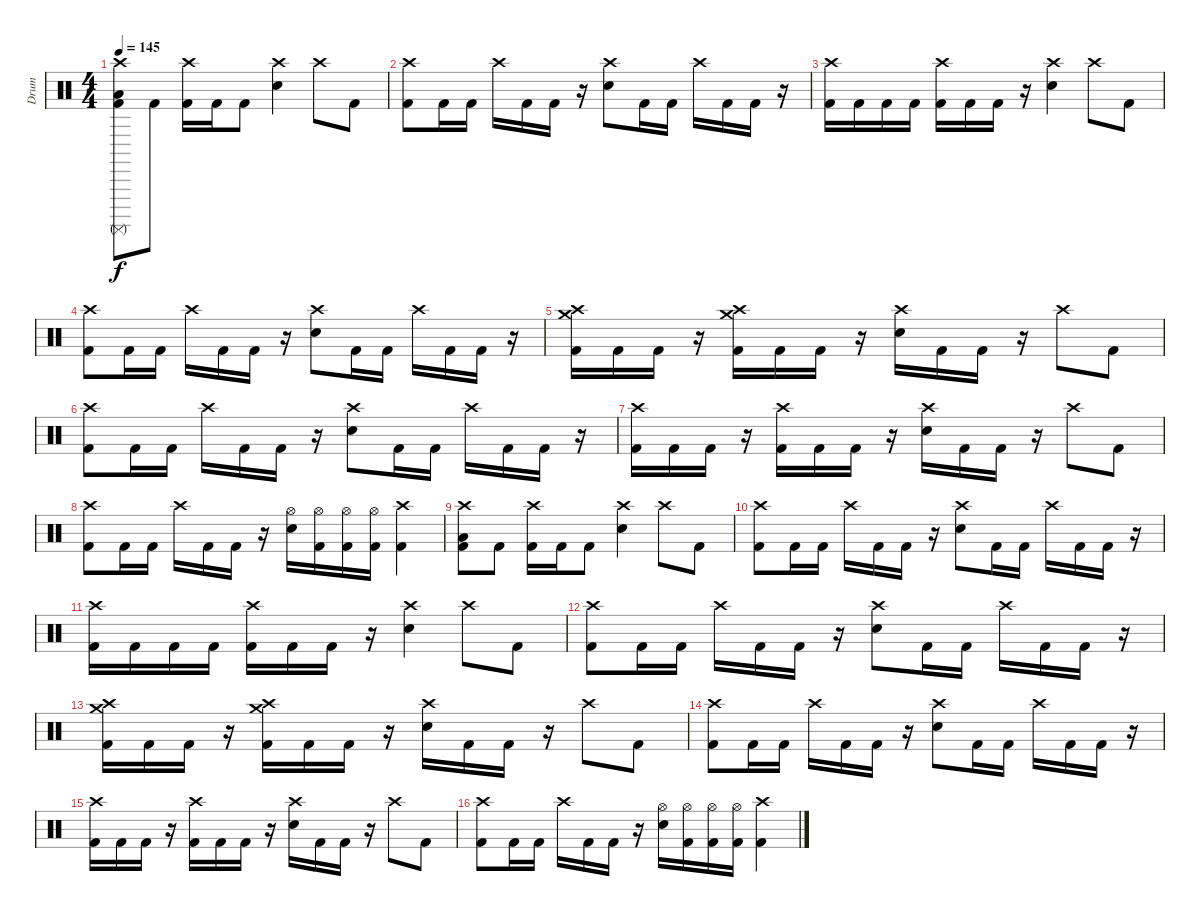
\track ("Drum" "Drum") {instrument percussion}
\staff
\articulation defaults
\ts (4 4)
\tempo 145
\clef neutral
\ks c
("Crash high (hit)" "Surdo (mute)" "Low Tom (hit)" "Kick (hit) 2").8{dy f} "Kick (hit) 2".8 ("Crash high (hit)" "Kick (hit) 2").16 "Kick (hit) 2".16 "Kick (hit) 2".8 ("Crash high (hit)" "Electric Snare (hit)").4 "Crash high (hit)".8 "Kick (hit) 2".8 |
("Crash high (hit)" "Kick (hit) 2").8 "Kick (hit) 2".16 "Kick (hit) 2".16 "Crash high (hit)".16 "Kick (hit) 2".16 "Kick (hit) 2".16 r.16 ("Crash high (hit)" "Electric Snare (hit)").8 "Kick (hit) 2".16 "Kick (hit) 2".16 "Crash high (hit)".16 "Kick (hit) 2".16 "Kick (hit) 2".16 r.16 |
("Crash high (hit)" "Kick (hit) 2").16 "Kick (hit) 2".16 "Kick (hit) 2".16 "Kick (hit) 2".16 ("Crash high (hit)" "Kick (hit) 2").16 "Kick (hit) 2".16 "Kick (hit) 2".16 r.16 ("Crash high (hit)" "Electric Snare (hit)").4 "Crash high (hit)".8 "Kick (hit) 2".8 |
("Crash high (hit)" "Kick (hit) 2").8 "Kick (hit) 2".16 "Kick (hit) 2".16 "Crash high (hit)".16 "Kick (hit) 2".16 "Kick (hit) 2".16 r.16 ("Crash high (hit)" "Electric Snare (hit)").8 "Kick (hit) 2".16 "Kick (hit) 2".16 "Crash high (hit)".16 "Kick (hit) 2".16 "Kick (hit) 2".16 r.16 |
("Crash high (hit)" "Crash medium (hit)" "Kick (hit) 2").16 "Kick (hit) 2".16 "Kick (hit) 2".16 r.16 ("Crash high (hit)" "Crash medium (hit)" "Kick (hit) 2").16 "Kick (hit) 2".16 "Kick (hit) 2".16 r.16 ("Crash high (hit)" "Electric Snare (hit)").16 "Kick (hit) 2".16 "Kick (hit) 2".16 r.16 "Crash high (hit)".8 "Kick (hit) 2".8 |
("Crash high (hit)" "Kick (hit) 2").8 "Kick (hit) 2".16 "Kick (hit) 2".16 "Crash high (hit)".16 "Kick (hit) 2".16 "Kick (hit) 2".16 r.16 ("Crash high (hit)" "Electric Snare (hit)").8 "Kick (hit) 2".16 "Kick (hit) 2".16 "Crash high (hit)".16 "Kick (hit) 2".16 "Kick (hit) 2".16 r.16 |
("Crash high (hit)" "Kick (hit) 2").16 "Kick (hit) 2".16 "Kick (hit) 2".16 r.16 ("Crash high (hit)" "Kick (hit) 2").16 "Kick (hit) 2".16 "Kick (hit) 2".16 r.16 ("Crash high (hit)" "Electric Snare (hit)").16 "Kick (hit) 2".16 "Kick (hit) 2".16 r.16 "Crash high (hit)".8 "Kick (hit) 2".8 |
("Crash high (hit)" "Kick (hit) 2").8 "Kick (hit) 2".16 "Kick (hit) 2".16 "Crash high (hit)".16 "Kick (hit) 2".16 "Kick (hit) 2".16 r.16 ("Hi-Hat (open)" "Electric Snare (hit)").16 ("Hi-Hat (open)" "Kick (hit) 2").16 ("Hi-Hat (open)" "Kick (hit) 2").16 ("Hi-Hat (open)" "Kick (hit) 2").16 ("Crash high (hit)" "Kick (hit) 2").4 |
("Crash high (hit)" "Low Tom (hit)" "Kick (hit) 2").8 "Kick (hit) 2".8 ("Crash high (hit)" "Kick (hit) 2").16 "Kick (hit) 2".16 "Kick (hit) 2".8 ("Crash high (hit)" "Electric Snare (hit)").4 "Crash high (hit)".8 "Kick (hit) 2".8 |
("Crash high (hit)" "Kick (hit) 2").8 "Kick (hit) 2".16 "Kick (hit) 2".16 "Crash high (hit)".16 "Kick (hit) 2".16 "Kick (hit) 2".16 r.16 ("Crash high (hit)" "Electric Snare (hit)").8 "Kick (hit) 2".16 "Kick (hit) 2".16 "Crash high (hit)".16 "Kick (hit) 2".16 "Kick (hit) 2".16 r.16 |
("Crash high (hit)" "Kick (hit) 2").16 "Kick (hit) 2".16 "Kick (hit) 2".16 "Kick (hit) 2".16 ("Crash high (hit)" "Kick (hit) 2").16 "Kick (hit) 2".16 "Kick (hit) 2".16 r.16 ("Crash high (hit)" "Electric Snare (hit)").4 "Crash high (hit)".8 "Kick (hit) 2".8 |
("Crash high (hit)" "Kick (hit) 2").8 "Kick (hit) 2".16 "Kick (hit) 2".16 "Crash high (hit)".16 "Kick (hit) 2".16 "Kick (hit) 2".16 r.16 ("Crash high (hit)" "Electric Snare (hit)").8 "Kick (hit) 2".16 "Kick (hit) 2".16 "Crash high (hit)".16 "Kick (hit) 2".16 "Kick (hit) 2".16 r.16 |
("Crash high (hit)" "Crash medium (hit)" "Kick (hit) 2").16 "Kick (hit) 2".16 "Kick (hit) 2".16 r.16 ("Crash high (hit)" "Crash medium (hit)" "Kick (hit) 2").16 "Kick (hit) 2".16 "Kick (hit) 2".16 r.16 ("Crash high (hit)" "Electric Snare (hit)").16 "Kick (hit) 2".16 "Kick (hit) 2".16 r.16 "Crash high (hit)".8 "Kick (hit) 2".8 |
("Crash high (hit)" "Kick (hit) 2").8 "Kick (hit) 2".16 "Kick (hit) 2".16 "Crash high (hit)".16 "Kick (hit) 2".16 "Kick (hit) 2".16 r.16 ("Crash high (hit)" "Electric Snare (hit)").8 "Kick (hit) 2".16 "Kick (hit) 2".16 "Crash high (hit)".16 "Kick (hit) 2".16 "Kick (hit) 2".16 r.16 |
("Crash high (hit)" "Kick (hit) 2").16 "Kick (hit) 2".16 "Kick (hit) 2".16 r.16 ("Crash high (hit)" "Kick (hit) 2").16 "Kick (hit) 2".16 "Kick (hit) 2".16 r.16 ("Crash high (hit)" "Electric Snare (hit)").16 "Kick (hit) 2".16 "Kick (hit) 2".16 r.16 "Crash high (hit)".8 "Kick (hit) 2".8 |
("Crash high (hit)" "Kick (hit) 2").8 "Kick (hit) 2".16 "Kick (hit) 2".16 "Crash high (hit)".16 "Kick (hit) 2".16 "Kick (hit) 2".16 r.16 ("Hi-Hat (open)" "Electric Snare (hit)").16 ("Hi-Hat (open)" "Kick (hit) 2").16 ("Hi-Hat (open)" "Kick (hit) 2").16 ("Hi-Hat (open)" "Kick (hit) 2").16 ("Crash high (hit)" "Kick (hit) 2").4
